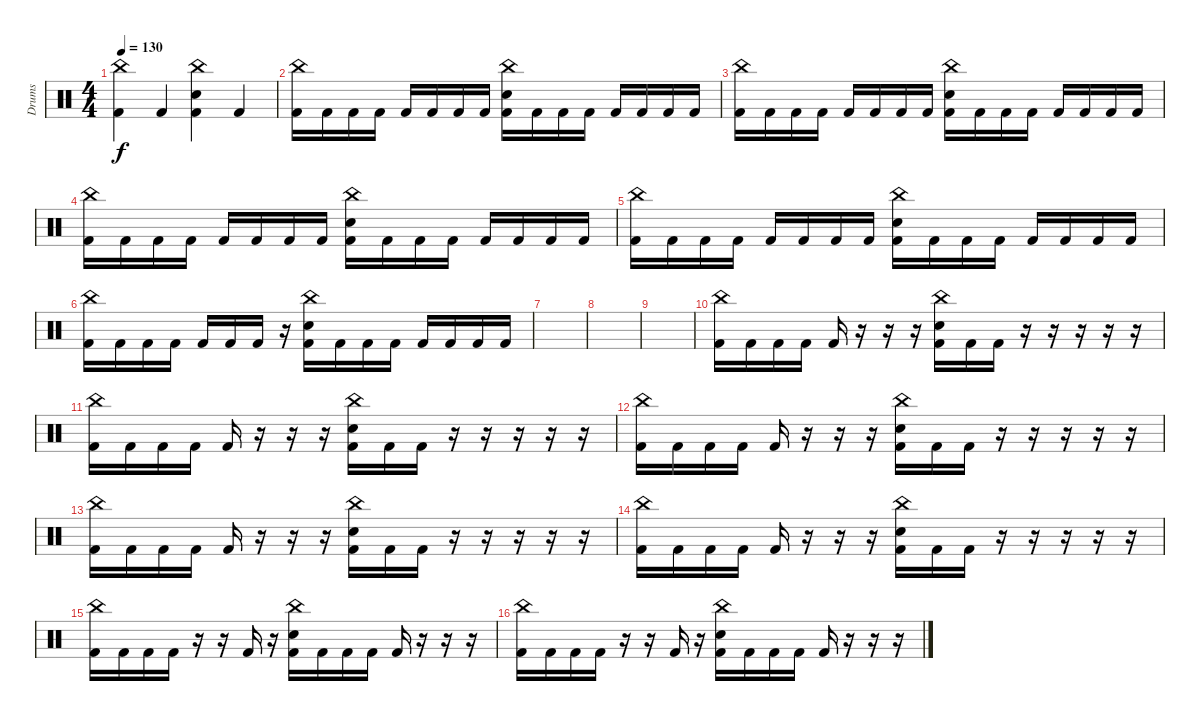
\track ("Drums" "Drums") {instrument percussion}
\staff {score}
\articulation defaults
\ts (4 4)
\tempo 130
\clef neutral
\ks c
("China (hit)" "Kick (hit) 2").4{dy f} "Kick (hit) 2".4 ("China (hit)" "Snare (hit) 2" "Kick (hit) 2").4 "Kick (hit) 2".4 |
("China (hit)" "Kick (hit) 2").16 "Kick (hit) 2".16 "Kick (hit) 2".16 "Kick (hit) 2".16 "Kick (hit) 2".16 "Kick (hit) 2".16 "Kick (hit) 2".16 "Kick (hit) 2".16 ("China (hit)" "Snare (hit) 2" "Kick (hit) 2").16 "Kick (hit) 2".16 "Kick (hit) 2".16 "Kick (hit) 2".16 "Kick (hit) 2".16 "Kick (hit) 2".16 "Kick (hit) 2".16 "Kick (hit) 2".16 |
("China (hit)" "Kick (hit) 2").16 "Kick (hit) 2".16 "Kick (hit) 2".16 "Kick (hit) 2".16 "Kick (hit) 2".16 "Kick (hit) 2".16 "Kick (hit) 2".16 "Kick (hit) 2".16 ("China (hit)" "Snare (hit) 2" "Kick (hit) 2").16 "Kick (hit) 2".16 "Kick (hit) 2".16 "Kick (hit) 2".16 "Kick (hit) 2".16 "Kick (hit) 2".16 "Kick (hit) 2".16 "Kick (hit) 2".16 |
("China (hit)" "Kick (hit) 2").16 "Kick (hit) 2".16 "Kick (hit) 2".16 "Kick (hit) 2".16 "Kick (hit) 2".16 "Kick (hit) 2".16 "Kick (hit) 2".16 "Kick (hit) 2".16 ("China (hit)" "Snare (hit) 2" "Kick (hit) 2").16 "Kick (hit) 2".16 "Kick (hit) 2".16 "Kick (hit) 2".16 "Kick (hit) 2".16 "Kick (hit) 2".16 "Kick (hit) 2".16 "Kick (hit) 2".16 |
("China (hit)" "Kick (hit) 2").16 "Kick (hit) 2".16 "Kick (hit) 2".16 "Kick (hit) 2".16 "Kick (hit) 2".16 "Kick (hit) 2".16 "Kick (hit) 2".16 "Kick (hit) 2".16 ("China (hit)" "Snare (hit) 2" "Kick (hit) 2").16 "Kick (hit) 2".16 "Kick (hit) 2".16 "Kick (hit) 2".16 "Kick (hit) 2".16 "Kick (hit) 2".16 "Kick (hit) 2".16 "Kick (hit) 2".16 |
("China (hit)" "Kick (hit) 2").16 "Kick (hit) 2".16 "Kick (hit) 2".16 "Kick (hit) 2".16 "Kick (hit) 2".16 "Kick (hit) 2".16 "Kick (hit) 2".16 r.16 ("China (hit)" "Snare (hit) 2" "Kick (hit) 2").16 "Kick (hit) 2".16 "Kick (hit) 2".16 "Kick (hit) 2".16 "Kick (hit) 2".16 "Kick (hit) 2".16 "Kick (hit) 2".16 "Kick (hit) 2".16 |
|
|
|
("China (hit)" "Kick (hit) 2").16 "Kick (hit) 2".16 "Kick (hit) 2".16 "Kick (hit) 2".16 "Kick (hit) 2".16 r.16 r.16 r.16 ("China (hit)" "Snare (hit) 2" "Kick (hit) 2").16 "Kick (hit) 2".16 "Kick (hit) 2".16 r.16 r.16 r.16 r.16 r.16 |
("China (hit)" "Kick (hit) 2").16 "Kick (hit) 2".16 "Kick (hit) 2".16 "Kick (hit) 2".16 "Kick (hit) 2".16 r.16 r.16 r.16 ("China (hit)" "Snare (hit) 2" "Kick (hit) 2").16 "Kick (hit) 2".16 "Kick (hit) 2".16 r.16 r.16 r.16 r.16 r.16 |
("China (hit)" "Kick (hit) 2").16 "Kick (hit) 2".16 "Kick (hit) 2".16 "Kick (hit) 2".16 "Kick (hit) 2".16 r.16 r.16 r.16 ("China (hit)" "Snare (hit) 2" "Kick (hit) 2").16 "Kick (hit) 2".16 "Kick (hit) 2".16 r.16 r.16 r.16 r.16 r.16 |
("China (hit)" "Kick (hit) 2").16 "Kick (hit) 2".16 "Kick (hit) 2".16 "Kick (hit) 2".16 "Kick (hit) 2".16 r.16 r.16 r.16 ("China (hit)" "Snare (hit) 2" "Kick (hit) 2").16 "Kick (hit) 2".16 "Kick (hit) 2".16 r.16 r.16 r.16 r.16 r.16 |
("China (hit)" "Kick (hit) 2").16 "Kick (hit) 2".16 "Kick (hit) 2".16 "Kick (hit) 2".16 "Kick (hit) 2".16 r.16 r.16 r.16 ("China (hit)" "Snare (hit) 2" "Kick (hit) 2").16 "Kick (hit) 2".16 "Kick (hit) 2".16 r.16 r.16 r.16 r.16 r.16 |
("China (hit)" "Kick (hit) 2").16 "Kick (hit) 2".16 "Kick (hit) 2".16 "Kick (hit) 2".16 r.16 r.16 "Kick (hit) 2".16 r.16 ("China (hit)" "Snare (hit) 2" "Kick (hit) 2").16 "Kick (hit) 2".16 "Kick (hit) 2".16 "Kick (hit) 2".16 "Kick (hit) 2".16 r.16 r.16 r.16 |
("China (hit)" "Kick (hit) 2").16 "Kick (hit) 2".16 "Kick (hit) 2".16 "Kick (hit) 2".16 r.16 r.16 "Kick (hit) 2".16 r.16 ("China (hit)" "Snare (hit) 2" "Kick (hit) 2").16 "Kick (hit) 2".16 "Kick (hit) 2".16 "Kick (hit) 2".16 "Kick (hit) 2".16 r.16 r.16 r.16
